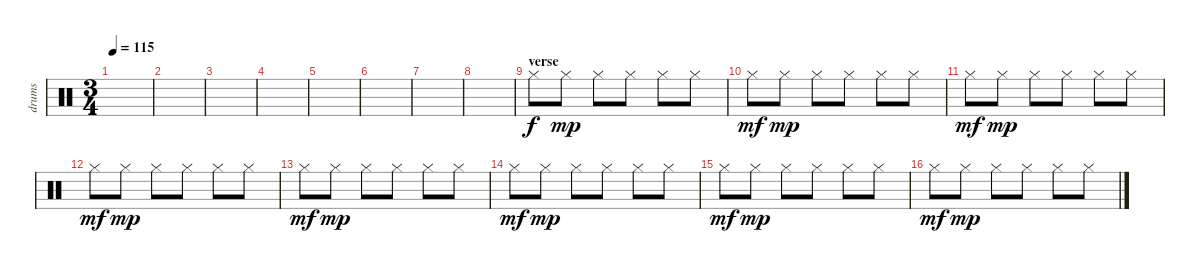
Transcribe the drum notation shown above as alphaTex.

\track ("drums" "drums") {instrument percussion}
\staff {score}
\articulation defaults
\ts (3 4)
\tempo 115
\clef neutral
\ks c
|
|
|
|
|
|
|
|
\section ("" "verse")
"Hi-Hat (closed)".8 "Hi-Hat (closed)".8{dy mp} "Hi-Hat (closed)".8 "Hi-Hat (closed)".8 "Hi-Hat (closed)".8 "Hi-Hat (closed)".8 |
"Hi-Hat (closed)".8{dy mf} "Hi-Hat (closed)".8{dy mp} "Hi-Hat (closed)".8 "Hi-Hat (closed)".8 "Hi-Hat (closed)".8 "Hi-Hat (closed)".8 |
"Hi-Hat (closed)".8{dy mf} "Hi-Hat (closed)".8{dy mp} "Hi-Hat (closed)".8 "Hi-Hat (closed)".8 "Hi-Hat (closed)".8 "Hi-Hat (closed)".8 |
"Hi-Hat (closed)".8{dy mf} "Hi-Hat (closed)".8{dy mp} "Hi-Hat (closed)".8 "Hi-Hat (closed)".8 "Hi-Hat (closed)".8 "Hi-Hat (closed)".8 |
"Hi-Hat (closed)".8{dy mf} "Hi-Hat (closed)".8{dy mp} "Hi-Hat (closed)".8 "Hi-Hat (closed)".8 "Hi-Hat (closed)".8 "Hi-Hat (closed)".8 |
"Hi-Hat (closed)".8{dy mf} "Hi-Hat (closed)".8{dy mp} "Hi-Hat (closed)".8 "Hi-Hat (closed)".8 "Hi-Hat (closed)".8 "Hi-Hat (closed)".8 |
"Hi-Hat (closed)".8{dy mf} "Hi-Hat (closed)".8{dy mp} "Hi-Hat (closed)".8 "Hi-Hat (closed)".8 "Hi-Hat (closed)".8 "Hi-Hat (closed)".8 |
"Hi-Hat (closed)".8{dy mf} "Hi-Hat (closed)".8{dy mp} "Hi-Hat (closed)".8 "Hi-Hat (closed)".8 "Hi-Hat (closed)".8 "Hi-Hat (closed)".8
